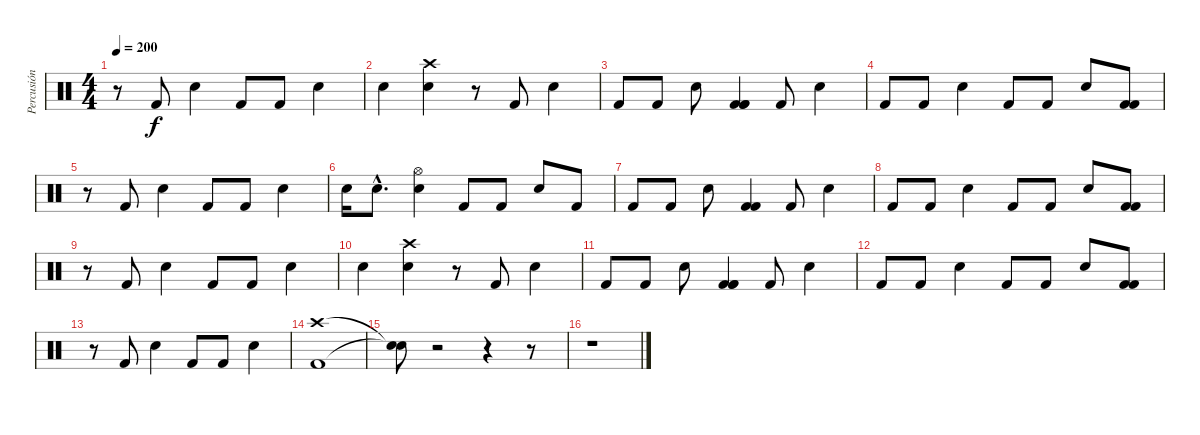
\track ("Percusión" "Percusión") {instrument percussion}
\staff {score}
\articulation defaults
\ts (4 4)
\tempo 200
\clef neutral
\ks c
r.8{dy f} "Kick (hit) 2".8 "Electric Snare (hit)".4 "Kick (hit) 2".8 "Kick (hit) 2".8 "Electric Snare (hit)".4 |
"Electric Snare (hit)".4 ("Electric Snare (hit)" "Crash high (hit)").4 r.8 "Kick (hit) 2".8 "Electric Snare (hit)".4 |
"Kick (hit) 2".8 "Kick (hit) 2".8 "Electric Snare (hit)".8 ("Kick (hit) 2" "Kick (hit) 2" "Kick (hit) 2").4 "Kick (hit) 2".8 "Electric Snare (hit)".4 |
"Kick (hit) 2".8 "Kick (hit) 2".8 "Electric Snare (hit)".4 "Kick (hit) 2".8 "Kick (hit) 2".8 "Electric Snare (hit)".8 ("Kick (hit) 2" "Kick (hit) 2").8 |
r.8 "Kick (hit) 2".8 "Electric Snare (hit)".4 "Kick (hit) 2".8 "Kick (hit) 2".8 "Electric Snare (hit)".4 |
"Electric Snare (hit)".16 "Electric Snare (hit)"{hac}.8{d} ("Electric Snare (hit)" "Hi-Hat (open)").4 "Kick (hit) 2".8 "Kick (hit) 2".8 "Electric Snare (hit)".8 "Kick (hit) 2".8 |
"Kick (hit) 2".8 "Kick (hit) 2".8 "Electric Snare (hit)".8 ("Kick (hit) 2" "Kick (hit) 2").4 "Kick (hit) 2".8 "Electric Snare (hit)".4 |
"Kick (hit) 2".8 "Kick (hit) 2".8 "Electric Snare (hit)".4 "Kick (hit) 2".8 "Kick (hit) 2".8 "Electric Snare (hit)".8 ("Kick (hit) 2" "Kick (hit) 2").8 |
r.8 "Kick (hit) 2".8 "Electric Snare (hit)".4 "Kick (hit) 2".8 "Kick (hit) 2".8 "Electric Snare (hit)".4 |
"Electric Snare (hit)".4 ("Electric Snare (hit)" "Crash high (hit)").4 r.8 "Kick (hit) 2".8 "Electric Snare (hit)".4 |
"Kick (hit) 2".8 "Kick (hit) 2".8 "Electric Snare (hit)".8 ("Kick (hit) 2" "Kick (hit) 2" "Kick (hit) 2").4 "Kick (hit) 2".8 "Electric Snare (hit)".4 |
"Kick (hit) 2".8 "Kick (hit) 2".8 "Electric Snare (hit)".4 "Kick (hit) 2".8 "Kick (hit) 2".8 "Electric Snare (hit)".8 ("Kick (hit) 2" "Kick (hit) 2").8 |
r.8 "Kick (hit) 2".8 "Electric Snare (hit)".4 "Kick (hit) 2".8 "Kick (hit) 2".8 "Electric Snare (hit)".4 |
("Kick (hit) 2" "Crash high (hit)").1 |
("Snare (hit)"{t} "Snare (hit)"{t}).8 r.2 r.4 r.8 |
r.1
